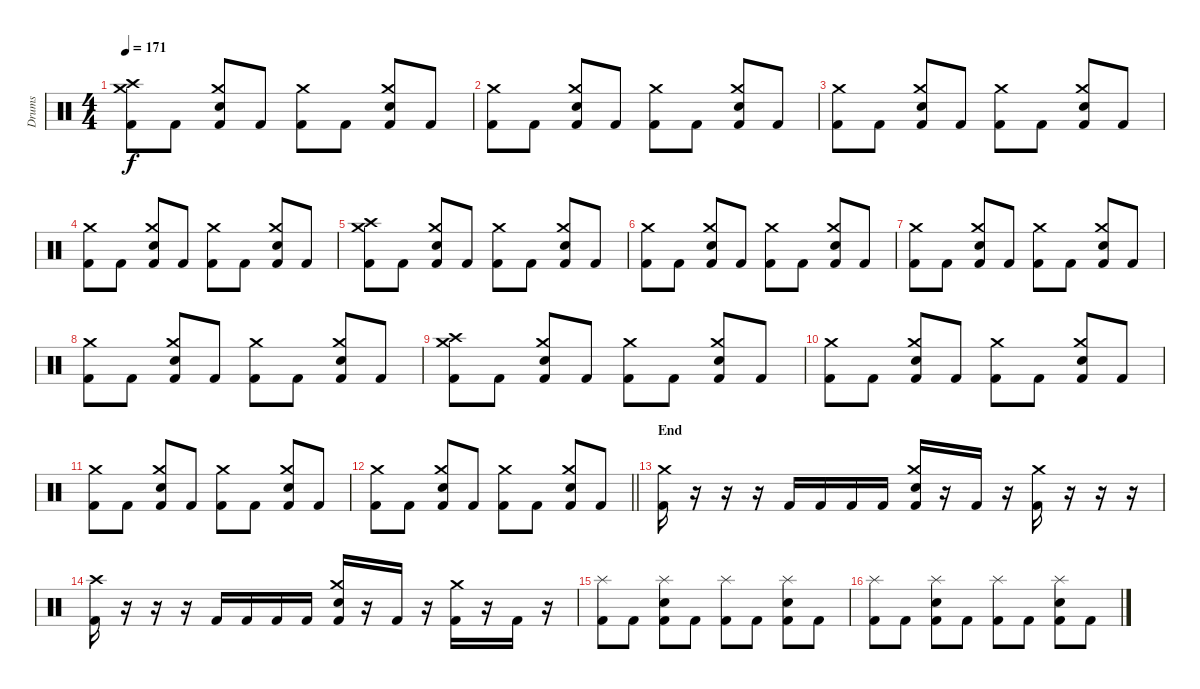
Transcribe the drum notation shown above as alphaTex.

\track ("Drums" "Drums") {instrument percussion}
\staff {score}
\articulation defaults
\ts (4 4)
\tempo 171
\clef neutral
\ks c
("Kick (hit) 2" "Crash medium (hit)" "Crash high (hit)").8{dy f} "Kick (hit) 2".8 ("Kick (hit) 2" "Snare (hit) 2" "Crash medium (hit)").8 "Kick (hit) 2".8 ("Kick (hit) 2" "Crash medium (hit)").8 "Kick (hit) 2".8 ("Kick (hit) 2" "Snare (hit) 2" "Crash medium (hit)").8 "Kick (hit) 2".8 |
("Kick (hit) 2" "Crash medium (hit)").8 "Kick (hit) 2".8 ("Kick (hit) 2" "Snare (hit) 2" "Crash medium (hit)").8 "Kick (hit) 2".8 ("Kick (hit) 2" "Crash medium (hit)").8 "Kick (hit) 2".8 ("Kick (hit) 2" "Snare (hit) 2" "Crash medium (hit)").8 "Kick (hit) 2".8 |
("Kick (hit) 2" "Crash medium (hit)").8 "Kick (hit) 2".8 ("Kick (hit) 2" "Snare (hit) 2" "Crash medium (hit)").8 "Kick (hit) 2".8 ("Kick (hit) 2" "Crash medium (hit)").8 "Kick (hit) 2".8 ("Kick (hit) 2" "Snare (hit) 2" "Crash medium (hit)").8 "Kick (hit) 2".8 |
("Kick (hit) 2" "Crash medium (hit)").8 "Kick (hit) 2".8 ("Kick (hit) 2" "Snare (hit) 2" "Crash medium (hit)").8 "Kick (hit) 2".8 ("Kick (hit) 2" "Crash medium (hit)").8 "Kick (hit) 2".8 ("Kick (hit) 2" "Snare (hit) 2" "Crash medium (hit)").8 "Kick (hit) 2".8 |
("Kick (hit) 2" "Crash medium (hit)" "Crash high (hit)").8 "Kick (hit) 2".8 ("Kick (hit) 2" "Snare (hit) 2" "Crash medium (hit)").8 "Kick (hit) 2".8 ("Kick (hit) 2" "Crash medium (hit)").8 "Kick (hit) 2".8 ("Kick (hit) 2" "Snare (hit) 2" "Crash medium (hit)").8 "Kick (hit) 2".8 |
("Kick (hit) 2" "Crash medium (hit)").8 "Kick (hit) 2".8 ("Kick (hit) 2" "Snare (hit) 2" "Crash medium (hit)").8 "Kick (hit) 2".8 ("Kick (hit) 2" "Crash medium (hit)").8 "Kick (hit) 2".8 ("Kick (hit) 2" "Snare (hit) 2" "Crash medium (hit)").8 "Kick (hit) 2".8 |
("Kick (hit) 2" "Crash medium (hit)").8 "Kick (hit) 2".8 ("Kick (hit) 2" "Snare (hit) 2" "Crash medium (hit)").8 "Kick (hit) 2".8 ("Kick (hit) 2" "Crash medium (hit)").8 "Kick (hit) 2".8 ("Kick (hit) 2" "Snare (hit) 2" "Crash medium (hit)").8 "Kick (hit) 2".8 |
("Kick (hit) 2" "Crash medium (hit)").8 "Kick (hit) 2".8 ("Kick (hit) 2" "Snare (hit) 2" "Crash medium (hit)").8 "Kick (hit) 2".8 ("Kick (hit) 2" "Crash medium (hit)").8 "Kick (hit) 2".8 ("Kick (hit) 2" "Snare (hit) 2" "Crash medium (hit)").8 "Kick (hit) 2".8 |
("Kick (hit) 2" "Crash medium (hit)" "Crash high (hit)").8 "Kick (hit) 2".8 ("Kick (hit) 2" "Snare (hit) 2" "Crash medium (hit)").8 "Kick (hit) 2".8 ("Kick (hit) 2" "Crash medium (hit)").8 "Kick (hit) 2".8 ("Kick (hit) 2" "Snare (hit) 2" "Crash medium (hit)").8 "Kick (hit) 2".8 |
("Kick (hit) 2" "Crash medium (hit)").8 "Kick (hit) 2".8 ("Kick (hit) 2" "Snare (hit) 2" "Crash medium (hit)").8 "Kick (hit) 2".8 ("Kick (hit) 2" "Crash medium (hit)").8 "Kick (hit) 2".8 ("Kick (hit) 2" "Snare (hit) 2" "Crash medium (hit)").8 "Kick (hit) 2".8 |
("Kick (hit) 2" "Crash medium (hit)").8 "Kick (hit) 2".8 ("Kick (hit) 2" "Snare (hit) 2" "Crash medium (hit)").8 "Kick (hit) 2".8 ("Kick (hit) 2" "Crash medium (hit)").8 "Kick (hit) 2".8 ("Kick (hit) 2" "Snare (hit) 2" "Crash medium (hit)").8 "Kick (hit) 2".8 |
\barLineRight lightlight
("Kick (hit) 2" "Crash medium (hit)").8 "Kick (hit) 2".8 ("Kick (hit) 2" "Snare (hit) 2" "Crash medium (hit)").8 "Kick (hit) 2".8 ("Kick (hit) 2" "Crash medium (hit)").8 "Kick (hit) 2".8 ("Kick (hit) 2" "Snare (hit) 2" "Crash medium (hit)").8 "Kick (hit) 2".8 |
\section ("" "End")
("Kick (hit) 2" "Crash medium (hit)").16 r.16 r.16 r.16 "Kick (hit) 2".16 "Kick (hit) 2".16 "Kick (hit) 2".16 "Kick (hit) 2".16 ("Kick (hit) 2" "Snare (hit) 2" "Crash medium (hit)").16 r.16 "Kick (hit) 2".16 r.16 ("Kick (hit) 2" "Crash medium (hit)").16 r.16 r.16 r.16 |
("Kick (hit) 2" "Crash high (hit)").16 r.16 r.16 r.16 "Kick (hit) 2".16 "Kick (hit) 2".16 "Kick (hit) 2".16 "Kick (hit) 2".16 ("Kick (hit) 2" "Snare (hit) 2" "Crash medium (hit)").16 r.16 "Kick (hit) 2".16 r.16 ("Kick (hit) 2" "Crash medium (hit)").16 r.16 "Kick (hit) 2".16 r.16 |
("Kick (hit) 2" "Splash (hit)").8 "Kick (hit) 2".8 ("Kick (hit) 2" "Snare (hit) 2" "Splash (hit)").8 "Kick (hit) 2".8 ("Kick (hit) 2" "Splash (hit)").8 "Kick (hit) 2".8 ("Kick (hit) 2" "Snare (hit) 2" "Splash (hit)").8 "Kick (hit) 2".8 |
("Kick (hit) 2" "Splash (hit)").8 "Kick (hit) 2".8 ("Kick (hit) 2" "Snare (hit) 2" "Splash (hit)").8 "Kick (hit) 2".8 ("Kick (hit) 2" "Splash (hit)").8 "Kick (hit) 2".8 ("Kick (hit) 2" "Snare (hit) 2" "Splash (hit)").8 "Kick (hit) 2".8
